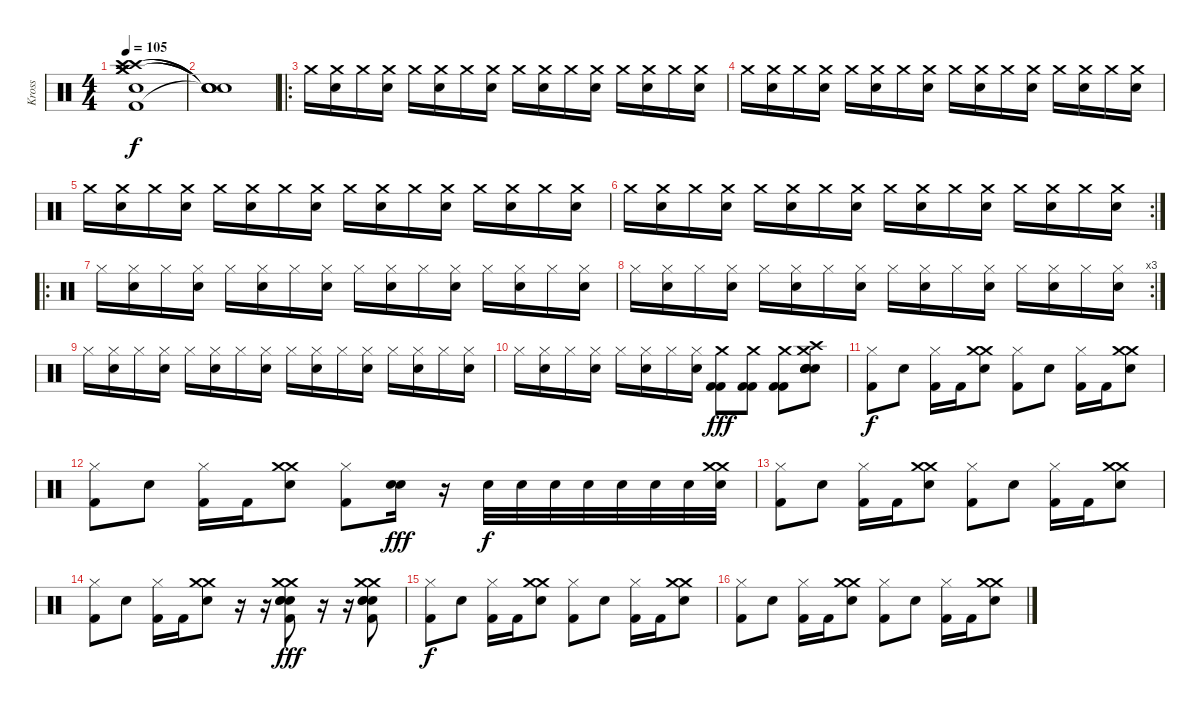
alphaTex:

\track ("Kross" "Kross") {instrument percussion}
\staff {score}
\articulation defaults
\ts (4 4)
\tempo 105
\clef neutral
\ks c
("Crash high (hit)" "Crash medium (hit)" "Crash medium (hit)" "Crash high (hit)" "Kick (hit) 2" "Snare (hit) 2").1{dy f} |
("Snare (hit)"{t} "Snare (hit)"{t} "Snare (hit)"{t} "Snare (hit)"{t} "Snare (hit)"{t}).1 |
\ro "Crash medium (hit)".16
("Crash medium (hit)" "Snare (hit) 2").16 "Crash medium (hit)".16 ("Crash medium (hit)" "Snare (hit) 2").16 "Crash medium (hit)".16 ("Crash medium (hit)" "Snare (hit) 2").16 "Crash medium (hit)".16 ("Crash medium (hit)" "Snare (hit) 2").16 "Crash medium (hit)".16 ("Crash medium (hit)" "Snare (hit) 2").16 "Crash medium (hit)".16 ("Crash medium (hit)" "Snare (hit) 2").16 "Crash medium (hit)".16 ("Crash medium (hit)" "Snare (hit) 2").16 "Crash medium (hit)".16 ("Crash medium (hit)" "Snare (hit) 2").16 |
"Crash medium (hit)".16 ("Crash medium (hit)" "Snare (hit) 2").16 "Crash medium (hit)".16 ("Crash medium (hit)" "Snare (hit) 2").16 "Crash medium (hit)".16 ("Crash medium (hit)" "Snare (hit) 2").16 "Crash medium (hit)".16 ("Crash medium (hit)" "Snare (hit) 2").16 "Crash medium (hit)".16 ("Crash medium (hit)" "Snare (hit) 2").16 "Crash medium (hit)".16 ("Crash medium (hit)" "Snare (hit) 2").16 "Crash medium (hit)".16 ("Crash medium (hit)" "Snare (hit) 2").16 "Crash medium (hit)".16 ("Crash medium (hit)" "Snare (hit) 2").16 |
"Crash medium (hit)".16 ("Crash medium (hit)" "Snare (hit) 2").16 "Crash medium (hit)".16 ("Crash medium (hit)" "Snare (hit) 2").16 "Crash medium (hit)".16 ("Crash medium (hit)" "Snare (hit) 2").16 "Crash medium (hit)".16 ("Crash medium (hit)" "Snare (hit) 2").16 "Crash medium (hit)".16 ("Crash medium (hit)" "Snare (hit) 2").16 "Crash medium (hit)".16 ("Crash medium (hit)" "Snare (hit) 2").16 "Crash medium (hit)".16 ("Crash medium (hit)" "Snare (hit) 2").16 "Crash medium (hit)".16 ("Crash medium (hit)" "Snare (hit) 2").16 |
\rc 2 "Crash medium (hit)".16
("Crash medium (hit)" "Snare (hit) 2").16 "Crash medium (hit)".16 ("Crash medium (hit)" "Snare (hit) 2").16 "Crash medium (hit)".16 ("Crash medium (hit)" "Snare (hit) 2").16 "Crash medium (hit)".16 ("Crash medium (hit)" "Snare (hit) 2").16 "Crash medium (hit)".16 ("Crash medium (hit)" "Snare (hit) 2").16 "Crash medium (hit)".16 ("Crash medium (hit)" "Snare (hit) 2").16 "Crash medium (hit)".16 ("Crash medium (hit)" "Snare (hit) 2").16 "Crash medium (hit)".16 ("Crash medium (hit)" "Snare (hit) 2").16 |
\ro "Hi-Hat (closed)".16
("Hi-Hat (closed)" "Snare (hit) 2").16 "Hi-Hat (closed)".16 ("Hi-Hat (closed)" "Snare (hit) 2").16 "Hi-Hat (closed)".16 ("Hi-Hat (closed)" "Snare (hit) 2").16 "Hi-Hat (closed)".16 ("Hi-Hat (closed)" "Snare (hit) 2").16 "Hi-Hat (closed)".16 ("Hi-Hat (closed)" "Snare (hit) 2").16 "Hi-Hat (closed)".16 ("Hi-Hat (closed)" "Snare (hit) 2").16 "Hi-Hat (closed)".16 ("Hi-Hat (closed)" "Snare (hit) 2").16 "Hi-Hat (closed)".16 ("Hi-Hat (closed)" "Snare (hit) 2").16 |
\rc 3 "Hi-Hat (closed)".16
("Hi-Hat (closed)" "Snare (hit) 2").16 "Hi-Hat (closed)".16 ("Hi-Hat (closed)" "Snare (hit) 2").16 "Hi-Hat (closed)".16 ("Hi-Hat (closed)" "Snare (hit) 2").16 "Hi-Hat (closed)".16 ("Hi-Hat (closed)" "Snare (hit) 2").16 "Hi-Hat (closed)".16 ("Hi-Hat (closed)" "Snare (hit) 2").16 "Hi-Hat (closed)".16 ("Hi-Hat (closed)" "Snare (hit) 2").16 "Hi-Hat (closed)".16 ("Hi-Hat (closed)" "Snare (hit) 2").16 "Hi-Hat (closed)".16 ("Hi-Hat (closed)" "Snare (hit) 2").16 |
"Hi-Hat (closed)".16 ("Hi-Hat (closed)" "Snare (hit) 2").16 "Hi-Hat (closed)".16 ("Hi-Hat (closed)" "Snare (hit) 2").16 "Hi-Hat (closed)".16 ("Hi-Hat (closed)" "Snare (hit) 2").16 "Hi-Hat (closed)".16 ("Hi-Hat (closed)" "Snare (hit) 2").16 "Hi-Hat (closed)".16 ("Hi-Hat (closed)" "Snare (hit) 2").16 "Hi-Hat (closed)".16 ("Hi-Hat (closed)" "Snare (hit) 2").16 "Hi-Hat (closed)".16 ("Hi-Hat (closed)" "Snare (hit) 2").16 "Hi-Hat (closed)".16 ("Hi-Hat (closed)" "Snare (hit) 2").16 |
"Hi-Hat (closed)".16 ("Hi-Hat (closed)" "Snare (hit) 2").16 "Hi-Hat (closed)".16 ("Hi-Hat (closed)" "Snare (hit) 2").16 "Hi-Hat (closed)".16 ("Hi-Hat (closed)" "Snare (hit) 2").16 "Hi-Hat (closed)".16 ("Hi-Hat (closed)" "Snare (hit) 2").16 ("Crash medium (hit)" "Kick (hit) 2" "Kick (hit) 2").8{dy fff} ("Crash medium (hit)" "Kick (hit) 2" "Kick (hit) 2").8 ("Crash medium (hit)" "Kick (hit) 2" "Kick (hit) 2").8 ("Crash high (hit)" "Crash medium (hit)" "Snare (hit) 2" "Snare (hit) 2" "Snare (hit) 2" "Snare (hit) 2").8 |
("Hi-Hat (closed)" "Kick (hit) 2").8{dy f} "Snare (hit) 2".8 ("Hi-Hat (closed)" "Kick (hit) 2").16 "Kick (hit) 2".16 ("Crash medium (hit)" "Crash medium (hit)" "Snare (hit) 2").8 ("Hi-Hat (closed)" "Kick (hit) 2").8 "Snare (hit) 2".8 ("Hi-Hat (closed)" "Kick (hit) 2").16 "Kick (hit) 2".16 ("Crash medium (hit)" "Crash medium (hit)" "Snare (hit) 2").8 |
("Hi-Hat (closed)" "Kick (hit) 2").8 "Snare (hit) 2".8 ("Hi-Hat (closed)" "Kick (hit) 2").16 "Kick (hit) 2".16 ("Crash medium (hit)" "Crash medium (hit)" "Snare (hit) 2").8 ("Hi-Hat (closed)" "Kick (hit) 2").8 ("Snare (hit) 2" "Snare (hit) 2").16{dy fff} r.16 "Snare (hit) 2".32{dy f} "Snare (hit) 2".32 "Snare (hit) 2".32 "Snare (hit) 2".32 "Snare (hit) 2".32 "Snare (hit) 2".32 "Snare (hit) 2".32 ("Crash medium (hit)" "Crash medium (hit)" "Snare (hit) 2").32 |
("Hi-Hat (closed)" "Kick (hit) 2").8 "Snare (hit) 2".8 ("Hi-Hat (closed)" "Kick (hit) 2").16 "Kick (hit) 2".16 ("Crash medium (hit)" "Crash medium (hit)" "Snare (hit) 2").8 ("Hi-Hat (closed)" "Kick (hit) 2").8 "Snare (hit) 2".8 ("Hi-Hat (closed)" "Kick (hit) 2").16 "Kick (hit) 2".16 ("Crash medium (hit)" "Crash medium (hit)" "Snare (hit) 2").8 |
("Hi-Hat (closed)" "Kick (hit) 2").8 "Snare (hit) 2".8 ("Hi-Hat (closed)" "Kick (hit) 2").16 "Kick (hit) 2".16 ("Crash medium (hit)" "Crash medium (hit)" "Snare (hit) 2").8 r.16 r.16 ("Crash medium (hit)" "Crash medium (hit)" "Snare (hit) 2" "Snare (hit) 2" "Snare (hit) 2" "Kick (hit) 2").8{dy fff} r.16 r.16 ("Crash medium (hit)" "Crash medium (hit)" "Snare (hit) 2" "Snare (hit) 2" "Snare (hit) 2" "Kick (hit) 2").8 |
("Hi-Hat (closed)" "Kick (hit) 2").8{dy f} "Snare (hit) 2".8 ("Hi-Hat (closed)" "Kick (hit) 2").16 "Kick (hit) 2".16 ("Crash medium (hit)" "Crash medium (hit)" "Snare (hit) 2").8 ("Hi-Hat (closed)" "Kick (hit) 2").8 "Snare (hit) 2".8 ("Hi-Hat (closed)" "Kick (hit) 2").16 "Kick (hit) 2".16 ("Crash medium (hit)" "Crash medium (hit)" "Snare (hit) 2").8 |
("Hi-Hat (closed)" "Kick (hit) 2").8 "Snare (hit) 2".8 ("Hi-Hat (closed)" "Kick (hit) 2").16 "Kick (hit) 2".16 ("Crash medium (hit)" "Crash medium (hit)" "Snare (hit) 2").8 ("Hi-Hat (closed)" "Kick (hit) 2").8 "Snare (hit) 2".8 ("Hi-Hat (closed)" "Kick (hit) 2").16 "Kick (hit) 2".16 ("Crash medium (hit)" "Crash medium (hit)" "Snare (hit) 2").8
